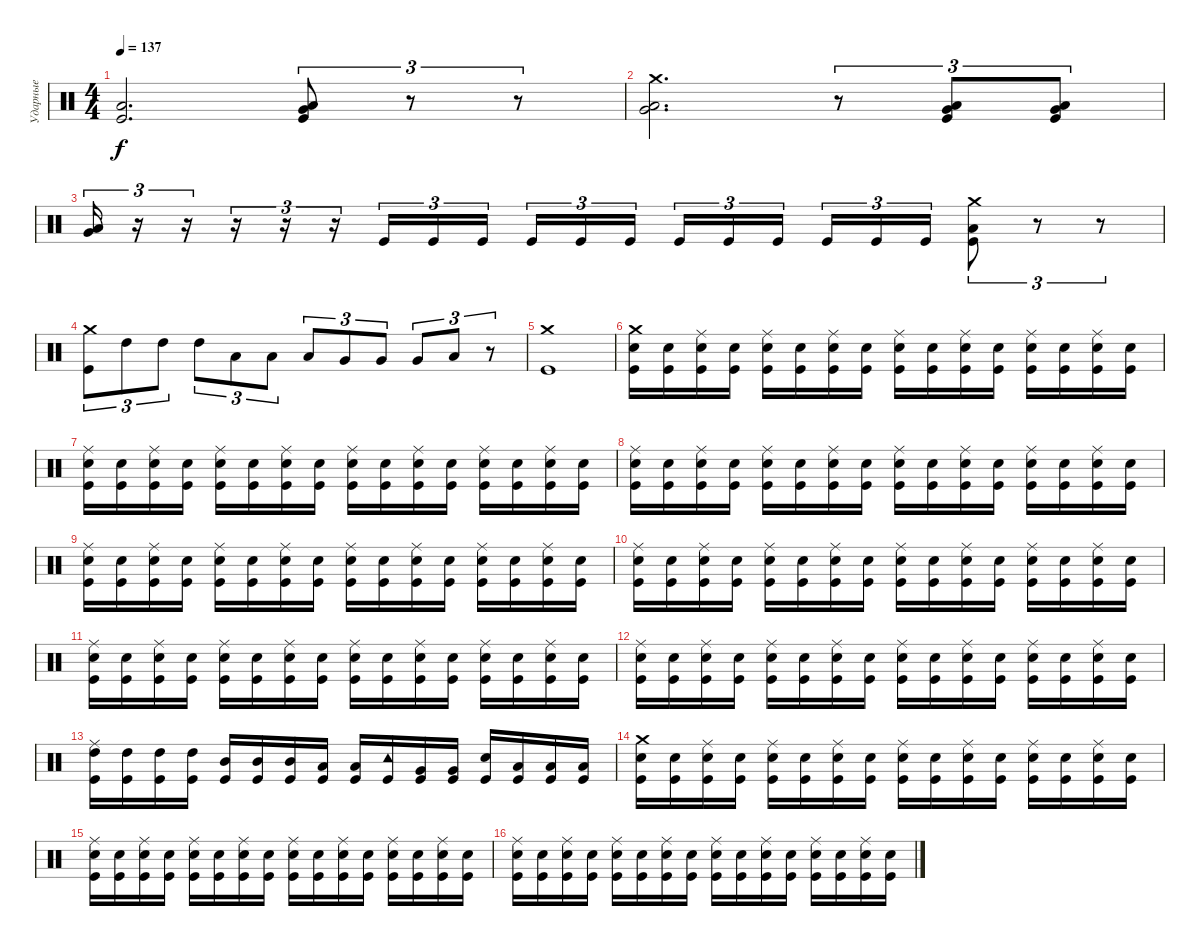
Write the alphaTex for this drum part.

\track ("Ударные" "Ударные") {instrument percussion}
\staff {score}
\articulation defaults
\ts (4 4)
\tempo 137
\clef neutral
\ks c
("Low Floor Tom (hit)" "Kick (hit)").2{d dy f} ("Very Low Tom (hit)" "Low Floor Tom (hit)" "Kick (hit)").8{tu (3 2)} r.8{tu (3 2)} r.8{tu (3 2)} |
("Crash medium (hit)" "Low Floor Tom (hit)" "Very Low Tom (hit)").2{d} r.8{tu (3 2)} ("Very Low Tom (hit)" "Low Floor Tom (hit)" "Kick (hit)").8{tu (3 2)} ("Very Low Tom (hit)" "Low Floor Tom (hit)" "Kick (hit)").8{tu (3 2)} |
("Very Low Tom (hit)" "Low Floor Tom (hit)").16{tu (3 2)} r.16{tu (3 2)} r.16{tu (3 2)} r.16{tu (3 2)} r.16{tu (3 2)} r.16{tu (3 2)} "Kick (hit)".16{tu (3 2)} "Kick (hit)".16{tu (3 2)} "Kick (hit)".16{tu (3 2) beam splitsecondary} "Kick (hit)".16{tu (3 2)} "Kick (hit)".16{tu (3 2)} "Kick (hit)".16{tu (3 2)} "Kick (hit)".16{tu (3 2)} "Kick (hit)".16{tu (3 2)} "Kick (hit)".16{tu (3 2) beam splitsecondary} "Kick (hit)".16{tu (3 2)} "Kick (hit)".16{tu (3 2)} "Kick (hit)".16{tu (3 2)} ("Crash medium (hit)" "Low Floor Tom (hit)" "Kick (hit)").8{tu (3 2)} r.8{tu (3 2)} r.8{tu (3 2)} |
("Crash medium (hit)" "Kick (hit)").8{tu (3 2)} "High Tom (hit)".8{tu (3 2)} "High Tom (hit)".8{tu (3 2)} "High Tom (hit)".8{tu (3 2)} "Low Tom (hit)".8{tu (3 2)} "Low Tom (hit)".8{tu (3 2)} "Low Tom (hit)".8{tu (3 2)} "Very Low Tom (hit)".8{tu (3 2)} "Very Low Tom (hit)".8{tu (3 2)} "Very Low Tom (hit)".8{tu (3 2)} "Low Floor Tom (hit)".8{tu (3 2)} r.8{tu (3 2)} |
("Crash medium (hit)" "Kick (hit)").1 |
("Crash medium (hit)" "Electric Snare (hit)" "Kick (hit)").16 ("Electric Snare (hit)" "Kick (hit)").16 ("Ride (middle)" "Electric Snare (hit)" "Kick (hit)").16 ("Electric Snare (hit)" "Kick (hit)").16 ("Ride (middle)" "Electric Snare (hit)" "Kick (hit)").16 ("Electric Snare (hit)" "Kick (hit)").16 ("Ride (middle)" "Electric Snare (hit)" "Kick (hit)").16 ("Electric Snare (hit)" "Kick (hit)").16 ("Ride (middle)" "Electric Snare (hit)" "Kick (hit)").16 ("Electric Snare (hit)" "Kick (hit)").16 ("Ride (middle)" "Electric Snare (hit)" "Kick (hit)").16 ("Electric Snare (hit)" "Kick (hit)").16 ("Ride (middle)" "Electric Snare (hit)" "Kick (hit)").16 ("Electric Snare (hit)" "Kick (hit)").16 ("Ride (middle)" "Electric Snare (hit)" "Kick (hit)").16 ("Electric Snare (hit)" "Kick (hit)").16 |
("Ride (middle)" "Electric Snare (hit)" "Kick (hit)").16 ("Electric Snare (hit)" "Kick (hit)").16 ("Ride (middle)" "Electric Snare (hit)" "Kick (hit)").16 ("Electric Snare (hit)" "Kick (hit)").16 ("Ride (middle)" "Electric Snare (hit)" "Kick (hit)").16 ("Electric Snare (hit)" "Kick (hit)").16 ("Ride (middle)" "Electric Snare (hit)" "Kick (hit)").16 ("Electric Snare (hit)" "Kick (hit)").16 ("Ride (middle)" "Electric Snare (hit)" "Kick (hit)").16 ("Electric Snare (hit)" "Kick (hit)").16 ("Ride (middle)" "Electric Snare (hit)" "Kick (hit)").16 ("Electric Snare (hit)" "Kick (hit)").16 ("Ride (middle)" "Electric Snare (hit)" "Kick (hit)").16 ("Electric Snare (hit)" "Kick (hit)").16 ("Ride (middle)" "Electric Snare (hit)" "Kick (hit)").16 ("Electric Snare (hit)" "Kick (hit)").16 |
("Ride (middle)" "Electric Snare (hit)" "Kick (hit)").16 ("Electric Snare (hit)" "Kick (hit)").16 ("Ride (middle)" "Electric Snare (hit)" "Kick (hit)").16 ("Electric Snare (hit)" "Kick (hit)").16 ("Ride (middle)" "Electric Snare (hit)" "Kick (hit)").16 ("Electric Snare (hit)" "Kick (hit)").16 ("Ride (middle)" "Electric Snare (hit)" "Kick (hit)").16 ("Electric Snare (hit)" "Kick (hit)").16 ("Ride (middle)" "Electric Snare (hit)" "Kick (hit)").16 ("Electric Snare (hit)" "Kick (hit)").16 ("Ride (middle)" "Electric Snare (hit)" "Kick (hit)").16 ("Electric Snare (hit)" "Kick (hit)").16 ("Ride (middle)" "Electric Snare (hit)" "Kick (hit)").16 ("Electric Snare (hit)" "Kick (hit)").16 ("Ride (middle)" "Electric Snare (hit)" "Kick (hit)").16 ("Electric Snare (hit)" "Kick (hit)").16 |
("Ride (middle)" "Electric Snare (hit)" "Kick (hit)").16 ("Electric Snare (hit)" "Kick (hit)").16 ("Ride (middle)" "Electric Snare (hit)" "Kick (hit)").16 ("Electric Snare (hit)" "Kick (hit)").16 ("Ride (middle)" "Electric Snare (hit)" "Kick (hit)").16 ("Electric Snare (hit)" "Kick (hit)").16 ("Ride (middle)" "Electric Snare (hit)" "Kick (hit)").16 ("Electric Snare (hit)" "Kick (hit)").16 ("Ride (middle)" "Electric Snare (hit)" "Kick (hit)").16 ("Electric Snare (hit)" "Kick (hit)").16 ("Ride (middle)" "Electric Snare (hit)" "Kick (hit)").16 ("Electric Snare (hit)" "Kick (hit)").16 ("Ride (middle)" "Electric Snare (hit)" "Kick (hit)").16 ("Electric Snare (hit)" "Kick (hit)").16 ("Ride (middle)" "Electric Snare (hit)" "Kick (hit)").16 ("Electric Snare (hit)" "Kick (hit)").16 |
("Ride (middle)" "Electric Snare (hit)" "Kick (hit)").16 ("Electric Snare (hit)" "Kick (hit)").16 ("Ride (middle)" "Electric Snare (hit)" "Kick (hit)").16 ("Electric Snare (hit)" "Kick (hit)").16 ("Ride (middle)" "Electric Snare (hit)" "Kick (hit)").16 ("Electric Snare (hit)" "Kick (hit)").16 ("Ride (middle)" "Electric Snare (hit)" "Kick (hit)").16 ("Electric Snare (hit)" "Kick (hit)").16 ("Ride (middle)" "Electric Snare (hit)" "Kick (hit)").16 ("Electric Snare (hit)" "Kick (hit)").16 ("Ride (middle)" "Electric Snare (hit)" "Kick (hit)").16 ("Electric Snare (hit)" "Kick (hit)").16 ("Ride (middle)" "Electric Snare (hit)" "Kick (hit)").16 ("Electric Snare (hit)" "Kick (hit)").16 ("Ride (middle)" "Electric Snare (hit)" "Kick (hit)").16 ("Electric Snare (hit)" "Kick (hit)").16 |
("Ride (middle)" "Electric Snare (hit)" "Kick (hit)").16 ("Electric Snare (hit)" "Kick (hit)").16 ("Ride (middle)" "Electric Snare (hit)" "Kick (hit)").16 ("Electric Snare (hit)" "Kick (hit)").16 ("Ride (middle)" "Electric Snare (hit)" "Kick (hit)").16 ("Electric Snare (hit)" "Kick (hit)").16 ("Ride (middle)" "Electric Snare (hit)" "Kick (hit)").16 ("Electric Snare (hit)" "Kick (hit)").16 ("Ride (middle)" "Electric Snare (hit)" "Kick (hit)").16 ("Electric Snare (hit)" "Kick (hit)").16 ("Ride (middle)" "Electric Snare (hit)" "Kick (hit)").16 ("Electric Snare (hit)" "Kick (hit)").16 ("Ride (middle)" "Electric Snare (hit)" "Kick (hit)").16 ("Electric Snare (hit)" "Kick (hit)").16 ("Ride (middle)" "Electric Snare (hit)" "Kick (hit)").16 ("Electric Snare (hit)" "Kick (hit)").16 |
("Ride (middle)" "Electric Snare (hit)" "Kick (hit)").16 ("Electric Snare (hit)" "Kick (hit)").16 ("Ride (middle)" "Electric Snare (hit)" "Kick (hit)").16 ("Electric Snare (hit)" "Kick (hit)").16 ("Ride (middle)" "Electric Snare (hit)" "Kick (hit)").16 ("Electric Snare (hit)" "Kick (hit)").16 ("Ride (middle)" "Electric Snare (hit)" "Kick (hit)").16 ("Electric Snare (hit)" "Kick (hit)").16 ("Ride (middle)" "Electric Snare (hit)" "Kick (hit)").16 ("Electric Snare (hit)" "Kick (hit)").16 ("Ride (middle)" "Electric Snare (hit)" "Kick (hit)").16 ("Electric Snare (hit)" "Kick (hit)").16 ("Ride (middle)" "Electric Snare (hit)" "Kick (hit)").16 ("Electric Snare (hit)" "Kick (hit)").16 ("Ride (middle)" "Electric Snare (hit)" "Kick (hit)").16 ("Electric Snare (hit)" "Kick (hit)").16 |
("Ride (middle)" "High Tom (hit)" "Kick (hit)").16 ("High Tom (hit)" "Kick (hit)").16 ("High Tom (hit)" "Kick (hit)").16 ("High Tom (hit)" "Kick (hit)").16 ("Mid Tom (hit)" "Kick (hit)").16 ("Mid Tom (hit)" "Kick (hit)").16 ("Mid Tom (hit)" "Kick (hit)").16 ("Low Tom (hit)" "Kick (hit)").16 ("Low Tom (hit)" "Kick (hit)").16 ("Tambourine (hit)" "Kick (hit)").16 ("Very Low Tom (hit)" "Kick (hit)").16 ("Very Low Tom (hit)" "Kick (hit)").16 ("Electric Snare (hit)" "Kick (hit)").16 ("Low Floor Tom (hit)" "Kick (hit)").16 ("Low Floor Tom (hit)" "Kick (hit)").16 ("Low Floor Tom (hit)" "Kick (hit)").16 |
("Crash medium (hit)" "Electric Snare (hit)" "Kick (hit)").16 ("Electric Snare (hit)" "Kick (hit)").16 ("Ride (middle)" "Electric Snare (hit)" "Kick (hit)").16 ("Electric Snare (hit)" "Kick (hit)").16 ("Ride (middle)" "Electric Snare (hit)" "Kick (hit)").16 ("Electric Snare (hit)" "Kick (hit)").16 ("Ride (middle)" "Electric Snare (hit)" "Kick (hit)").16 ("Electric Snare (hit)" "Kick (hit)").16 ("Ride (middle)" "Electric Snare (hit)" "Kick (hit)").16 ("Electric Snare (hit)" "Kick (hit)").16 ("Ride (middle)" "Electric Snare (hit)" "Kick (hit)").16 ("Electric Snare (hit)" "Kick (hit)").16 ("Ride (middle)" "Electric Snare (hit)" "Kick (hit)").16 ("Electric Snare (hit)" "Kick (hit)").16 ("Ride (middle)" "Electric Snare (hit)" "Kick (hit)").16 ("Electric Snare (hit)" "Kick (hit)").16 |
("Ride (middle)" "Electric Snare (hit)" "Kick (hit)").16 ("Electric Snare (hit)" "Kick (hit)").16 ("Ride (middle)" "Electric Snare (hit)" "Kick (hit)").16 ("Electric Snare (hit)" "Kick (hit)").16 ("Ride (middle)" "Electric Snare (hit)" "Kick (hit)").16 ("Electric Snare (hit)" "Kick (hit)").16 ("Ride (middle)" "Electric Snare (hit)" "Kick (hit)").16 ("Electric Snare (hit)" "Kick (hit)").16 ("Ride (middle)" "Electric Snare (hit)" "Kick (hit)").16 ("Electric Snare (hit)" "Kick (hit)").16 ("Ride (middle)" "Electric Snare (hit)" "Kick (hit)").16 ("Electric Snare (hit)" "Kick (hit)").16 ("Ride (middle)" "Electric Snare (hit)" "Kick (hit)").16 ("Electric Snare (hit)" "Kick (hit)").16 ("Ride (middle)" "Electric Snare (hit)" "Kick (hit)").16 ("Electric Snare (hit)" "Kick (hit)").16 |
("Ride (middle)" "Electric Snare (hit)" "Kick (hit)").16 ("Electric Snare (hit)" "Kick (hit)").16 ("Ride (middle)" "Electric Snare (hit)" "Kick (hit)").16 ("Electric Snare (hit)" "Kick (hit)").16 ("Ride (middle)" "Electric Snare (hit)" "Kick (hit)").16 ("Electric Snare (hit)" "Kick (hit)").16 ("Ride (middle)" "Electric Snare (hit)" "Kick (hit)").16 ("Electric Snare (hit)" "Kick (hit)").16 ("Ride (middle)" "Electric Snare (hit)" "Kick (hit)").16 ("Electric Snare (hit)" "Kick (hit)").16 ("Ride (middle)" "Electric Snare (hit)" "Kick (hit)").16 ("Electric Snare (hit)" "Kick (hit)").16 ("Ride (middle)" "Electric Snare (hit)" "Kick (hit)").16 ("Electric Snare (hit)" "Kick (hit)").16 ("Ride (middle)" "Electric Snare (hit)" "Kick (hit)").16 ("Electric Snare (hit)" "Kick (hit)").16
